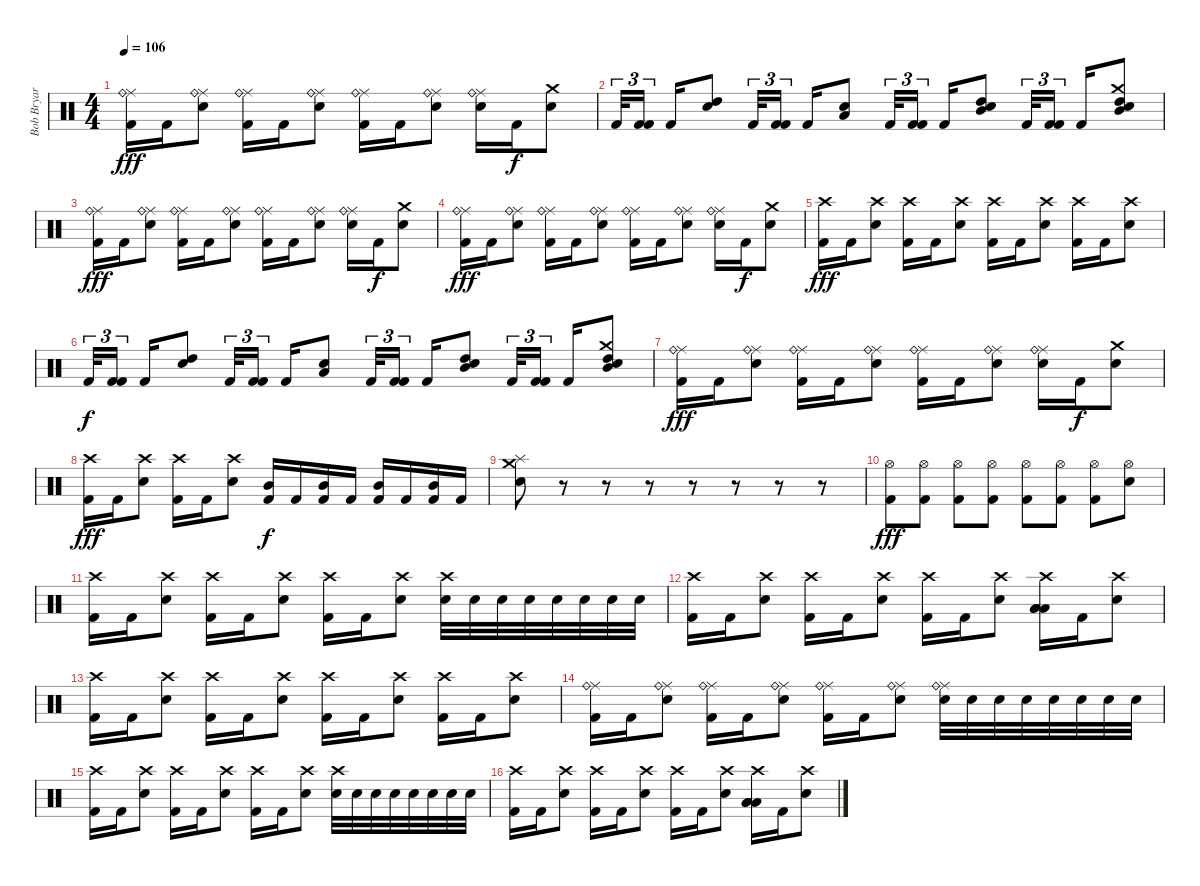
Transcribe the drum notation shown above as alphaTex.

\track ("Bob Bryar" "Bob Bryar") {instrument percussion}
\staff {score}
\articulation defaults
\ts (4 4)
\tempo 106
\clef neutral
\ks c
("Kick (hit) 2" "Ride (middle)" "Ride (bell)").16{dy fff} "Kick (hit) 2".16 ("Electric Snare (hit)" "Ride (middle)" "Ride (bell)").8 ("Kick (hit) 2" "Ride (middle)" "Ride (bell)").16 "Kick (hit) 2".16 ("Electric Snare (hit)" "Ride (middle)" "Ride (bell)").8 ("Kick (hit) 2" "Ride (middle)" "Ride (bell)").16 "Kick (hit) 2".16 ("Electric Snare (hit)" "Ride (middle)" "Ride (bell)").8 ("Electric Snare (hit)" "Ride (middle)" "Ride (bell)").16 "Kick (hit) 2".16{dy f} ("Crash medium (hit)" "Electric Snare (hit)").8 |
"Kick (hit) 2".32{tu (3 2)} ("Kick (hit) 2" "Kick (hit) 2").16{tu (3 2) beam splitsecondary} "Kick (hit) 2".16 ("Electric Snare (hit)" "High Tom (hit)").8 "Kick (hit) 2".32{tu (3 2)} ("Kick (hit) 2" "Kick (hit) 2").16{tu (3 2) beam splitsecondary} "Kick (hit) 2".16 ("Electric Snare (hit)" "Low Tom (hit)").8 "Kick (hit) 2".32{tu (3 2)} ("Kick (hit) 2" "Kick (hit) 2").16{tu (3 2) beam splitsecondary} "Kick (hit) 2".16 ("Electric Snare (hit)" "Mid Tom (hit)" "High Tom (hit)").8 "Kick (hit) 2".32{tu (3 2)} ("Kick (hit) 2" "Kick (hit) 2").16{tu (3 2) beam splitsecondary} "Kick (hit) 2".16 ("Electric Snare (hit)" "Mid Tom (hit)" "High Tom (hit)" "Crash medium (hit)").8 |
("Kick (hit) 2" "Ride (middle)" "Ride (bell)").16{dy fff} "Kick (hit) 2".16 ("Electric Snare (hit)" "Ride (middle)" "Ride (bell)").8 ("Kick (hit) 2" "Ride (middle)" "Ride (bell)").16 "Kick (hit) 2".16 ("Electric Snare (hit)" "Ride (middle)" "Ride (bell)").8 ("Kick (hit) 2" "Ride (middle)" "Ride (bell)").16 "Kick (hit) 2".16 ("Electric Snare (hit)" "Ride (middle)" "Ride (bell)").8 ("Electric Snare (hit)" "Ride (middle)" "Ride (bell)").16 "Kick (hit) 2".16{dy f} ("Crash medium (hit)" "Electric Snare (hit)").8 |
("Kick (hit) 2" "Ride (middle)" "Ride (bell)").16{dy fff} "Kick (hit) 2".16 ("Electric Snare (hit)" "Ride (middle)" "Ride (bell)").8 ("Kick (hit) 2" "Ride (middle)" "Ride (bell)").16 "Kick (hit) 2".16 ("Electric Snare (hit)" "Ride (middle)" "Ride (bell)").8 ("Kick (hit) 2" "Ride (middle)" "Ride (bell)").16 "Kick (hit) 2".16 ("Electric Snare (hit)" "Ride (middle)" "Ride (bell)").8 ("Electric Snare (hit)" "Ride (middle)" "Ride (bell)").16 "Kick (hit) 2".16{dy f} ("Crash medium (hit)" "Electric Snare (hit)").8 |
("Kick (hit) 2" "Crash high (hit)").16{dy fff} "Kick (hit) 2".16 ("Electric Snare (hit)" "Crash high (hit)").8 ("Kick (hit) 2" "Crash high (hit)").16 "Kick (hit) 2".16 ("Electric Snare (hit)" "Crash high (hit)").8 ("Kick (hit) 2" "Crash high (hit)").16 "Kick (hit) 2".16 ("Electric Snare (hit)" "Crash high (hit)").8 ("Kick (hit) 2" "Crash high (hit)").16 "Kick (hit) 2".16 ("Electric Snare (hit)" "Crash high (hit)").8 |
"Kick (hit) 2".32{tu (3 2) dy f} ("Kick (hit) 2" "Kick (hit) 2").16{tu (3 2) beam splitsecondary} "Kick (hit) 2".16 ("Electric Snare (hit)" "High Tom (hit)").8 "Kick (hit) 2".32{tu (3 2)} ("Kick (hit) 2" "Kick (hit) 2").16{tu (3 2) beam splitsecondary} "Kick (hit) 2".16 ("Electric Snare (hit)" "Low Tom (hit)").8 "Kick (hit) 2".32{tu (3 2)} ("Kick (hit) 2" "Kick (hit) 2").16{tu (3 2) beam splitsecondary} "Kick (hit) 2".16 ("Electric Snare (hit)" "Mid Tom (hit)" "High Tom (hit)").8 "Kick (hit) 2".32{tu (3 2)} ("Kick (hit) 2" "Kick (hit) 2").16{tu (3 2) beam splitsecondary} "Kick (hit) 2".16 ("Electric Snare (hit)" "Mid Tom (hit)" "High Tom (hit)" "Crash medium (hit)").8 |
("Kick (hit) 2" "Ride (middle)" "Ride (bell)").16{dy fff} "Kick (hit) 2".16 ("Electric Snare (hit)" "Ride (middle)" "Ride (bell)").8 ("Kick (hit) 2" "Ride (middle)" "Ride (bell)").16 "Kick (hit) 2".16 ("Electric Snare (hit)" "Ride (middle)" "Ride (bell)").8 ("Kick (hit) 2" "Ride (middle)" "Ride (bell)").16 "Kick (hit) 2".16 ("Electric Snare (hit)" "Ride (middle)" "Ride (bell)").8 ("Electric Snare (hit)" "Ride (middle)" "Ride (bell)").16 "Kick (hit) 2".16{dy f} ("Crash medium (hit)" "Electric Snare (hit)").8 |
("Kick (hit) 2" "Crash high (hit)").16{dy fff} "Kick (hit) 2".16 ("Electric Snare (hit)" "Crash high (hit)").8 ("Kick (hit) 2" "Crash high (hit)").16 "Kick (hit) 2".16 ("Electric Snare (hit)" "Crash high (hit)").8 ("Kick (hit) 2" "Mid Tom (hit)").16{dy f} "Kick (hit) 2".16 ("Kick (hit) 2" "Mid Tom (hit)").16 "Kick (hit) 2".16 ("Kick (hit) 2" "Mid Tom (hit)").16 "Kick (hit) 2".16 ("Kick (hit) 2" "Mid Tom (hit)").16 "Kick (hit) 2".16 |
("Electric Snare (hit)" "Crash medium (hit)" "Splash (hit)").8 r.8 r.8 r.8 r.8 r.8 r.8 r.8 |
("Kick (hit) 2" "Hi-Hat (open)").8{dy fff} ("Kick (hit) 2" "Hi-Hat (open)").8 ("Kick (hit) 2" "Hi-Hat (open)").8 ("Kick (hit) 2" "Hi-Hat (open)").8 ("Kick (hit) 2" "Hi-Hat (open)").8 ("Kick (hit) 2" "Hi-Hat (open)").8 ("Kick (hit) 2" "Hi-Hat (open)").8 ("Electric Snare (hit)" "Hi-Hat (open)").8 |
("Kick (hit) 2" "Crash high (hit)").16 "Kick (hit) 2".16 ("Electric Snare (hit)" "Crash high (hit)").8 ("Kick (hit) 2" "Crash high (hit)").16 "Kick (hit) 2".16 ("Electric Snare (hit)" "Crash high (hit)").8 ("Kick (hit) 2" "Crash high (hit)").16 "Kick (hit) 2".16 ("Electric Snare (hit)" "Crash high (hit)").8 ("Electric Snare (hit)" "Crash high (hit)").32 "Electric Snare (hit)".32 "Electric Snare (hit)".32 "Electric Snare (hit)".32 "Electric Snare (hit)".32 "Electric Snare (hit)".32 "Electric Snare (hit)".32 "Electric Snare (hit)".32 |
("Kick (hit) 2" "Crash high (hit)").16 "Kick (hit) 2".16 ("Electric Snare (hit)" "Crash high (hit)").8 ("Kick (hit) 2" "Crash high (hit)").16 "Kick (hit) 2".16 ("Electric Snare (hit)" "Crash high (hit)").8 ("Kick (hit) 2" "Crash high (hit)").16 "Kick (hit) 2".16 ("Electric Snare (hit)" "Crash high (hit)").8 ("Low Floor Tom (hit)" "Low Floor Tom (hit)" "Low Floor Tom (hit)" "Crash high (hit)").16 "Kick (hit) 2".16 ("Electric Snare (hit)" "Crash high (hit)").8 |
("Kick (hit) 2" "Crash high (hit)").16 "Kick (hit) 2".16 ("Electric Snare (hit)" "Crash high (hit)").8 ("Kick (hit) 2" "Crash high (hit)").16 "Kick (hit) 2".16 ("Electric Snare (hit)" "Crash high (hit)").8 ("Kick (hit) 2" "Crash high (hit)").16 "Kick (hit) 2".16 ("Electric Snare (hit)" "Crash high (hit)").8 ("Kick (hit) 2" "Crash high (hit)").16 "Kick (hit) 2".16 ("Electric Snare (hit)" "Crash high (hit)").8 |
("Kick (hit) 2" "Ride (middle)" "Ride (bell)").16 "Kick (hit) 2".16 ("Electric Snare (hit)" "Ride (middle)" "Ride (bell)").8 ("Kick (hit) 2" "Ride (middle)" "Ride (bell)").16 "Kick (hit) 2".16 ("Electric Snare (hit)" "Ride (middle)" "Ride (bell)").8 ("Kick (hit) 2" "Ride (middle)" "Ride (bell)").16 "Kick (hit) 2".16 ("Electric Snare (hit)" "Ride (middle)" "Ride (bell)").8 ("Electric Snare (hit)" "Ride (middle)" "Ride (bell)").32 "Electric Snare (hit)".32 "Electric Snare (hit)".32 "Electric Snare (hit)".32 "Electric Snare (hit)".32 "Electric Snare (hit)".32 "Electric Snare (hit)".32 "Electric Snare (hit)".32 |
("Kick (hit) 2" "Crash high (hit)").16 "Kick (hit) 2".16 ("Electric Snare (hit)" "Crash high (hit)").8 ("Kick (hit) 2" "Crash high (hit)").16 "Kick (hit) 2".16 ("Electric Snare (hit)" "Crash high (hit)").8 ("Kick (hit) 2" "Crash high (hit)").16 "Kick (hit) 2".16 ("Electric Snare (hit)" "Crash high (hit)").8 ("Electric Snare (hit)" "Crash high (hit)").32 "Electric Snare (hit)".32 "Electric Snare (hit)".32 "Electric Snare (hit)".32 "Electric Snare (hit)".32 "Electric Snare (hit)".32 "Electric Snare (hit)".32 "Electric Snare (hit)".32 |
("Kick (hit) 2" "Crash high (hit)").16 "Kick (hit) 2".16 ("Electric Snare (hit)" "Crash high (hit)").8 ("Kick (hit) 2" "Crash high (hit)").16 "Kick (hit) 2".16 ("Electric Snare (hit)" "Crash high (hit)").8 ("Kick (hit) 2" "Crash high (hit)").16 "Kick (hit) 2".16 ("Electric Snare (hit)" "Crash high (hit)").8 ("Low Floor Tom (hit)" "Low Floor Tom (hit)" "Low Floor Tom (hit)" "Crash high (hit)").16 "Kick (hit) 2".16 ("Electric Snare (hit)" "Crash high (hit)").8
